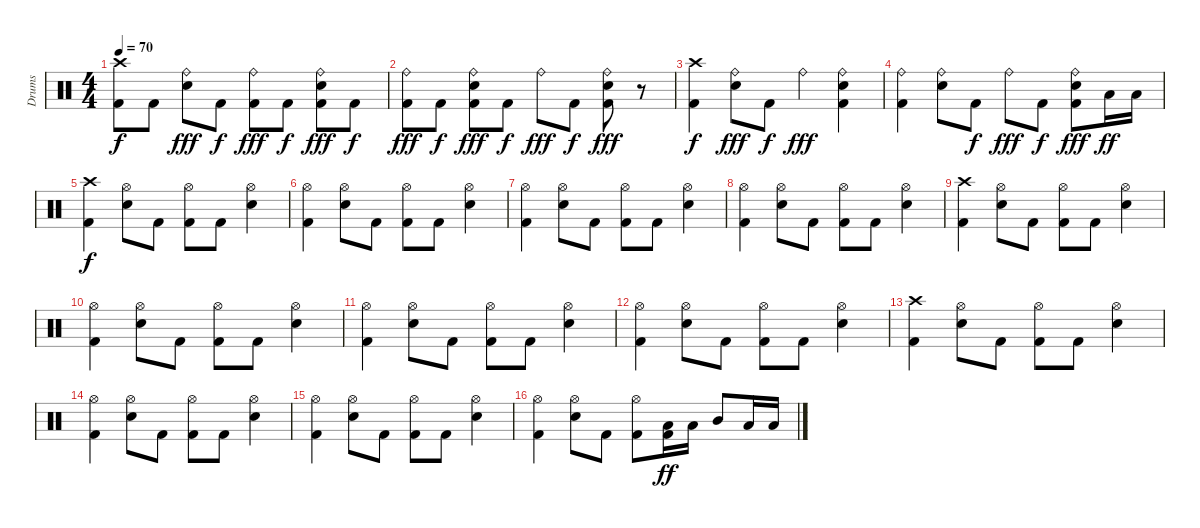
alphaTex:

\track ("Drums" "Drums") {instrument percussion}
\staff {score}
\articulation defaults
\ts (4 4)
\tempo 70
\clef neutral
\ks c
("Kick (hit) 2" "Crash high (hit)").8{dy f} "Kick (hit) 2".8 ("Electric Snare (hit)" "Ride (bell)").8{dy fff} "Kick (hit) 2".8{dy f} ("Kick (hit) 2" "Ride (bell)").8{dy fff} "Kick (hit) 2".8{dy f} ("Kick (hit) 2" "Electric Snare (hit)" "Ride (bell)").8{dy fff} "Kick (hit) 2".8{dy f} |
("Kick (hit) 2" "Ride (bell)").8{dy fff} "Kick (hit) 2".8{dy f} ("Kick (hit) 2" "Electric Snare (hit)" "Ride (bell)").8{dy fff} "Kick (hit) 2".8{dy f} "Ride (bell)".8{dy fff} "Kick (hit) 2".8{dy f} ("Kick (hit) 2" "Electric Snare (hit)" "Ride (bell)").8{dy fff} r.8 |
("Kick (hit) 2" "Crash high (hit)").4{dy f} ("Electric Snare (hit)" "Ride (bell)").8{dy fff} "Kick (hit) 2".8{dy f} "Ride (bell)".4{dy fff} ("Kick (hit) 2" "Electric Snare (hit)" "Ride (bell)").4 |
("Kick (hit) 2" "Ride (bell)").4 ("Electric Snare (hit)" "Ride (bell)").8 "Kick (hit) 2".8{dy f} "Ride (bell)".8{dy fff} "Kick (hit) 2".8{dy f} ("Kick (hit) 2" "Electric Snare (hit)" "Ride (bell)").8{dy fff} "Low Tom (hit)".16{dy ff} "Low Tom (hit)".16 |
("Kick (hit) 2" "Crash high (hit)").4{dy f} ("Electric Snare (hit)" "Hi-Hat (open)").8 "Kick (hit) 2".8 ("Kick (hit) 2" "Hi-Hat (open)").8 "Kick (hit) 2".8 ("Electric Snare (hit)" "Hi-Hat (open)").4 |
("Kick (hit) 2" "Hi-Hat (open)").4 ("Electric Snare (hit)" "Hi-Hat (open)").8 "Kick (hit) 2".8 ("Kick (hit) 2" "Hi-Hat (open)").8 "Kick (hit) 2".8 ("Electric Snare (hit)" "Hi-Hat (open)").4 |
("Kick (hit) 2" "Hi-Hat (open)").4 ("Electric Snare (hit)" "Hi-Hat (open)").8 "Kick (hit) 2".8 ("Kick (hit) 2" "Hi-Hat (open)").8 "Kick (hit) 2".8 ("Electric Snare (hit)" "Hi-Hat (open)").4 |
("Kick (hit) 2" "Hi-Hat (open)").4 ("Electric Snare (hit)" "Hi-Hat (open)").8 "Kick (hit) 2".8 ("Kick (hit) 2" "Hi-Hat (open)").8 "Kick (hit) 2".8 ("Electric Snare (hit)" "Hi-Hat (open)").4 |
("Kick (hit) 2" "Crash high (hit)").4 ("Electric Snare (hit)" "Hi-Hat (open)").8 "Kick (hit) 2".8 ("Kick (hit) 2" "Hi-Hat (open)").8 "Kick (hit) 2".8 ("Electric Snare (hit)" "Hi-Hat (open)").4 |
("Kick (hit) 2" "Hi-Hat (open)").4 ("Electric Snare (hit)" "Hi-Hat (open)").8 "Kick (hit) 2".8 ("Kick (hit) 2" "Hi-Hat (open)").8 "Kick (hit) 2".8 ("Electric Snare (hit)" "Hi-Hat (open)").4 |
("Kick (hit) 2" "Hi-Hat (open)").4 ("Electric Snare (hit)" "Hi-Hat (open)").8 "Kick (hit) 2".8 ("Kick (hit) 2" "Hi-Hat (open)").8 "Kick (hit) 2".8 ("Electric Snare (hit)" "Hi-Hat (open)").4 |
("Kick (hit) 2" "Hi-Hat (open)").4 ("Electric Snare (hit)" "Hi-Hat (open)").8 "Kick (hit) 2".8 ("Kick (hit) 2" "Hi-Hat (open)").8 "Kick (hit) 2".8 ("Electric Snare (hit)" "Hi-Hat (open)").4 |
("Kick (hit) 2" "Crash high (hit)").4 ("Electric Snare (hit)" "Hi-Hat (open)").8 "Kick (hit) 2".8 ("Kick (hit) 2" "Hi-Hat (open)").8 "Kick (hit) 2".8 ("Electric Snare (hit)" "Hi-Hat (open)").4 |
("Kick (hit) 2" "Hi-Hat (open)").4 ("Electric Snare (hit)" "Hi-Hat (open)").8 "Kick (hit) 2".8 ("Kick (hit) 2" "Hi-Hat (open)").8 "Kick (hit) 2".8 ("Electric Snare (hit)" "Hi-Hat (open)").4 |
("Kick (hit) 2" "Hi-Hat (open)").4 ("Electric Snare (hit)" "Hi-Hat (open)").8 "Kick (hit) 2".8 ("Kick (hit) 2" "Hi-Hat (open)").8 "Kick (hit) 2".8 ("Electric Snare (hit)" "Hi-Hat (open)").4 |
("Kick (hit) 2" "Hi-Hat (open)").4 ("Electric Snare (hit)" "Hi-Hat (open)").8 "Kick (hit) 2".8 ("Kick (hit) 2" "Hi-Hat (open)").8 ("Kick (hit) 2" "Low Tom (hit)").16{dy ff} "Low Tom (hit)".16 "Mid Tom (hit)".8 "Low Tom (hit)".16 "Low Tom (hit)".16
